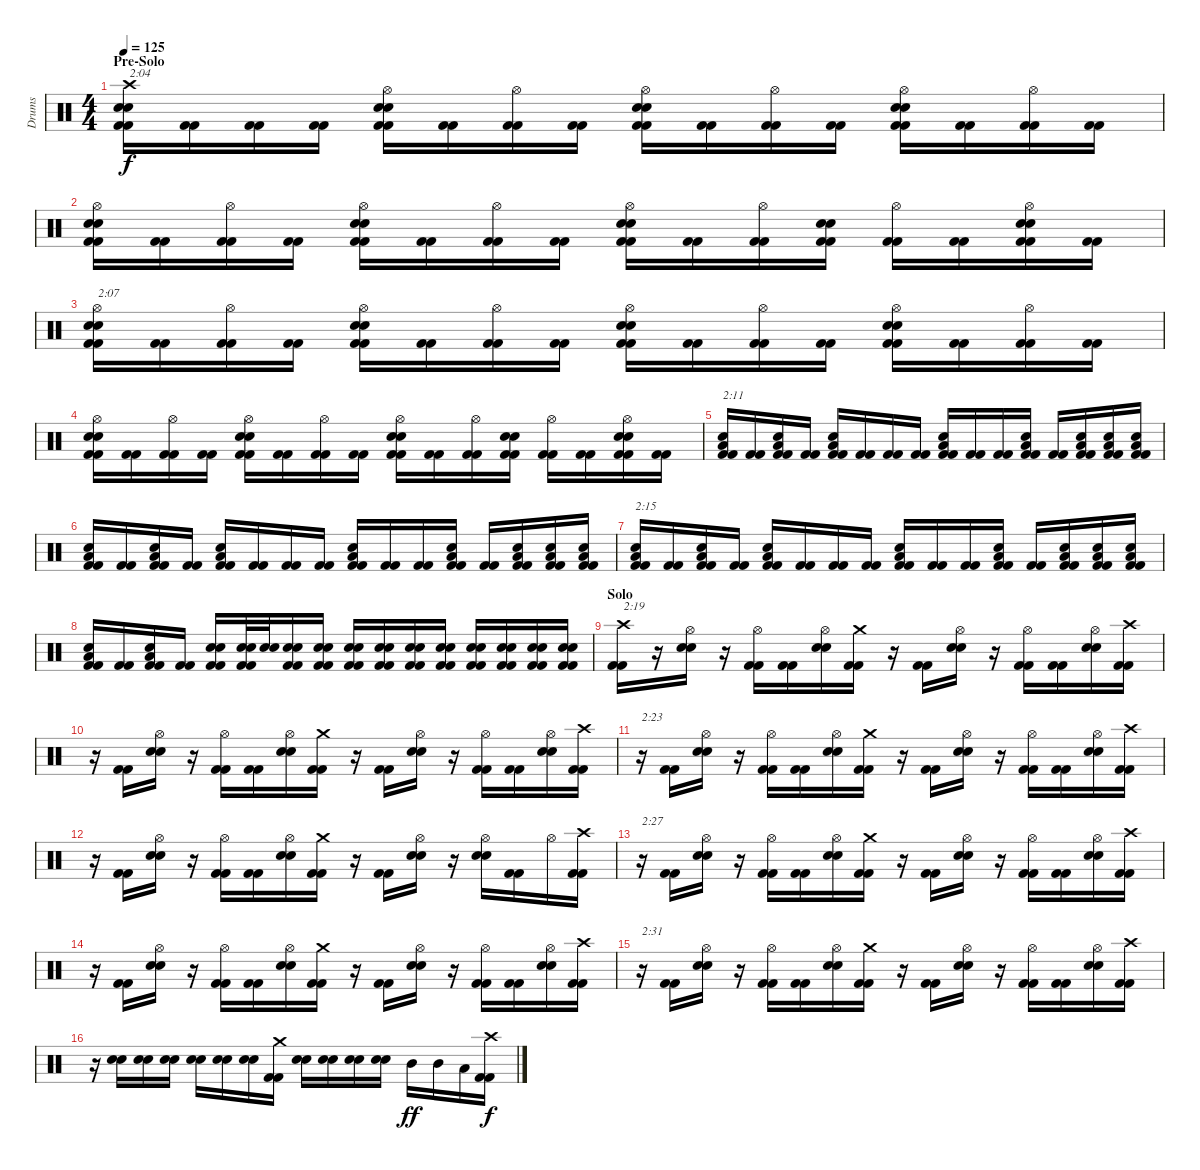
\track ("Drums" "Drums") {instrument percussion}
\staff {score}
\articulation defaults
\ts (4 4)
\section ("" "Pre-Solo")
\tempo 125
\clef neutral
\ks c
("Crash high (hit)" "Snare (hit) 2" "Snare (hit) 2" "Kick (hit) 2" "Kick (hit) 2").16{txt "2:04" dy f} ("Kick (hit) 2" "Kick (hit) 2").16 ("Kick (hit) 2" "Kick (hit) 2").16 ("Kick (hit) 2" "Kick (hit) 2").16 ("Hi-Hat (open)" "Snare (hit) 2" "Snare (hit) 2" "Kick (hit) 2" "Kick (hit) 2").16 ("Kick (hit) 2" "Kick (hit) 2").16 ("Hi-Hat (open)" "Kick (hit) 2" "Kick (hit) 2").16 ("Kick (hit) 2" "Kick (hit) 2").16 ("Hi-Hat (open)" "Snare (hit) 2" "Snare (hit) 2" "Kick (hit) 2" "Kick (hit) 2").16 ("Kick (hit) 2" "Kick (hit) 2").16 ("Hi-Hat (open)" "Kick (hit) 2" "Kick (hit) 2").16 ("Kick (hit) 2" "Kick (hit) 2").16 ("Hi-Hat (open)" "Snare (hit) 2" "Snare (hit) 2" "Kick (hit) 2" "Kick (hit) 2").16 ("Kick (hit) 2" "Kick (hit) 2").16 ("Hi-Hat (open)" "Kick (hit) 2" "Kick (hit) 2").16 ("Kick (hit) 2" "Kick (hit) 2").16 |
("Hi-Hat (open)" "Snare (hit) 2" "Snare (hit) 2" "Kick (hit) 2" "Kick (hit) 2").16 ("Kick (hit) 2" "Kick (hit) 2").16 ("Hi-Hat (open)" "Kick (hit) 2" "Kick (hit) 2").16 ("Kick (hit) 2" "Kick (hit) 2").16 ("Hi-Hat (open)" "Snare (hit) 2" "Snare (hit) 2" "Kick (hit) 2" "Kick (hit) 2").16 ("Kick (hit) 2" "Kick (hit) 2").16 ("Hi-Hat (open)" "Kick (hit) 2" "Kick (hit) 2").16 ("Kick (hit) 2" "Kick (hit) 2").16 ("Hi-Hat (open)" "Snare (hit) 2" "Snare (hit) 2" "Kick (hit) 2" "Kick (hit) 2").16 ("Kick (hit) 2" "Kick (hit) 2").16 ("Hi-Hat (open)" "Kick (hit) 2" "Kick (hit) 2").16 ("Snare (hit) 2" "Snare (hit) 2" "Kick (hit) 2" "Kick (hit) 2").16 ("Hi-Hat (open)" "Kick (hit) 2" "Kick (hit) 2").16 ("Kick (hit) 2" "Kick (hit) 2").16 ("Hi-Hat (open)" "Snare (hit) 2" "Snare (hit) 2" "Kick (hit) 2" "Kick (hit) 2").16 ("Kick (hit) 2" "Kick (hit) 2").16 |
("Hi-Hat (open)" "Snare (hit) 2" "Snare (hit) 2" "Kick (hit) 2" "Kick (hit) 2").16{txt "2:07"} ("Kick (hit) 2" "Kick (hit) 2").16 ("Hi-Hat (open)" "Kick (hit) 2" "Kick (hit) 2").16 ("Kick (hit) 2" "Kick (hit) 2").16 ("Hi-Hat (open)" "Snare (hit) 2" "Snare (hit) 2" "Kick (hit) 2" "Kick (hit) 2").16 ("Kick (hit) 2" "Kick (hit) 2").16 ("Hi-Hat (open)" "Kick (hit) 2" "Kick (hit) 2").16 ("Kick (hit) 2" "Kick (hit) 2").16 ("Hi-Hat (open)" "Snare (hit) 2" "Snare (hit) 2" "Kick (hit) 2" "Kick (hit) 2").16 ("Kick (hit) 2" "Kick (hit) 2").16 ("Hi-Hat (open)" "Kick (hit) 2" "Kick (hit) 2").16 ("Kick (hit) 2" "Kick (hit) 2").16 ("Hi-Hat (open)" "Snare (hit) 2" "Snare (hit) 2" "Kick (hit) 2" "Kick (hit) 2").16 ("Kick (hit) 2" "Kick (hit) 2").16 ("Hi-Hat (open)" "Kick (hit) 2" "Kick (hit) 2").16 ("Kick (hit) 2" "Kick (hit) 2").16 |
("Hi-Hat (open)" "Snare (hit) 2" "Snare (hit) 2" "Kick (hit) 2" "Kick (hit) 2").16 ("Kick (hit) 2" "Kick (hit) 2").16 ("Hi-Hat (open)" "Kick (hit) 2" "Kick (hit) 2").16 ("Kick (hit) 2" "Kick (hit) 2").16 ("Hi-Hat (open)" "Snare (hit) 2" "Snare (hit) 2" "Kick (hit) 2" "Kick (hit) 2").16 ("Kick (hit) 2" "Kick (hit) 2").16 ("Hi-Hat (open)" "Kick (hit) 2" "Kick (hit) 2").16 ("Kick (hit) 2" "Kick (hit) 2").16 ("Hi-Hat (open)" "Snare (hit) 2" "Snare (hit) 2" "Kick (hit) 2" "Kick (hit) 2").16 ("Kick (hit) 2" "Kick (hit) 2").16 ("Hi-Hat (open)" "Kick (hit) 2" "Kick (hit) 2").16 ("Snare (hit) 2" "Snare (hit) 2" "Kick (hit) 2" "Kick (hit) 2").16 ("Hi-Hat (open)" "Kick (hit) 2" "Kick (hit) 2").16 ("Kick (hit) 2" "Kick (hit) 2").16 ("Hi-Hat (open)" "Snare (hit) 2" "Snare (hit) 2" "Kick (hit) 2" "Kick (hit) 2").16 ("Kick (hit) 2" "Kick (hit) 2").16 |
("Low Floor Tom (hit)" "Snare (hit) 2" "Kick (hit) 2" "Kick (hit) 2").16{txt "2:11"} ("Kick (hit) 2" "Kick (hit) 2").16 ("Low Floor Tom (hit)" "Snare (hit) 2" "Kick (hit) 2" "Kick (hit) 2").16 ("Kick (hit) 2" "Kick (hit) 2").16 ("Low Floor Tom (hit)" "Snare (hit) 2" "Kick (hit) 2" "Kick (hit) 2").16 ("Kick (hit) 2" "Kick (hit) 2").16 ("Kick (hit) 2" "Kick (hit) 2").16 ("Kick (hit) 2" "Kick (hit) 2").16 ("Low Floor Tom (hit)" "Snare (hit) 2" "Kick (hit) 2" "Kick (hit) 2").16 ("Kick (hit) 2" "Kick (hit) 2").16 ("Kick (hit) 2" "Kick (hit) 2").16 ("Low Floor Tom (hit)" "Snare (hit) 2" "Kick (hit) 2" "Kick (hit) 2").16 ("Kick (hit) 2" "Kick (hit) 2").16 ("Low Floor Tom (hit)" "Snare (hit) 2" "Kick (hit) 2" "Kick (hit) 2").16 ("Low Floor Tom (hit)" "Snare (hit) 2" "Kick (hit) 2" "Kick (hit) 2").16 ("Low Floor Tom (hit)" "Snare (hit) 2" "Kick (hit) 2" "Kick (hit) 2").16 |
("Low Floor Tom (hit)" "Snare (hit) 2" "Kick (hit) 2" "Kick (hit) 2").16 ("Kick (hit) 2" "Kick (hit) 2").16 ("Low Floor Tom (hit)" "Snare (hit) 2" "Kick (hit) 2" "Kick (hit) 2").16 ("Kick (hit) 2" "Kick (hit) 2").16 ("Low Floor Tom (hit)" "Snare (hit) 2" "Kick (hit) 2" "Kick (hit) 2").16 ("Kick (hit) 2" "Kick (hit) 2").16 ("Kick (hit) 2" "Kick (hit) 2").16 ("Kick (hit) 2" "Kick (hit) 2").16 ("Low Floor Tom (hit)" "Snare (hit) 2" "Kick (hit) 2" "Kick (hit) 2").16 ("Kick (hit) 2" "Kick (hit) 2").16 ("Kick (hit) 2" "Kick (hit) 2").16 ("Low Floor Tom (hit)" "Snare (hit) 2" "Kick (hit) 2" "Kick (hit) 2").16 ("Kick (hit) 2" "Kick (hit) 2").16 ("Low Floor Tom (hit)" "Snare (hit) 2" "Kick (hit) 2" "Kick (hit) 2").16 ("Low Floor Tom (hit)" "Snare (hit) 2" "Kick (hit) 2" "Kick (hit) 2").16 ("Low Floor Tom (hit)" "Snare (hit) 2" "Kick (hit) 2" "Kick (hit) 2").16 |
("Low Floor Tom (hit)" "Snare (hit) 2" "Kick (hit) 2" "Kick (hit) 2").16{txt "2:15"} ("Kick (hit) 2" "Kick (hit) 2").16 ("Low Floor Tom (hit)" "Snare (hit) 2" "Kick (hit) 2" "Kick (hit) 2").16 ("Kick (hit) 2" "Kick (hit) 2").16 ("Low Floor Tom (hit)" "Snare (hit) 2" "Kick (hit) 2" "Kick (hit) 2").16 ("Kick (hit) 2" "Kick (hit) 2").16 ("Kick (hit) 2" "Kick (hit) 2").16 ("Kick (hit) 2" "Kick (hit) 2").16 ("Low Floor Tom (hit)" "Snare (hit) 2" "Kick (hit) 2" "Kick (hit) 2").16 ("Kick (hit) 2" "Kick (hit) 2").16 ("Kick (hit) 2" "Kick (hit) 2").16 ("Low Floor Tom (hit)" "Snare (hit) 2" "Kick (hit) 2" "Kick (hit) 2").16 ("Kick (hit) 2" "Kick (hit) 2").16 ("Low Floor Tom (hit)" "Snare (hit) 2" "Kick (hit) 2" "Kick (hit) 2").16 ("Low Floor Tom (hit)" "Snare (hit) 2" "Kick (hit) 2" "Kick (hit) 2").16 ("Low Floor Tom (hit)" "Snare (hit) 2" "Kick (hit) 2" "Kick (hit) 2").16 |
("Low Floor Tom (hit)" "Snare (hit) 2" "Kick (hit) 2" "Kick (hit) 2").16 ("Kick (hit) 2" "Kick (hit) 2").16 ("Low Floor Tom (hit)" "Snare (hit) 2" "Kick (hit) 2" "Kick (hit) 2").16 ("Kick (hit) 2" "Kick (hit) 2").16 ("Snare (hit) 2" "Snare (hit) 2" "Kick (hit) 2" "Kick (hit) 2").16 ("Snare (hit) 2" "Snare (hit) 2" "Kick (hit) 2" "Kick (hit) 2").32 ("Snare (hit) 2" "Snare (hit) 2").32 ("Snare (hit) 2" "Snare (hit) 2" "Kick (hit) 2" "Kick (hit) 2").16 ("Snare (hit) 2" "Snare (hit) 2" "Kick (hit) 2" "Kick (hit) 2").16 ("Snare (hit) 2" "Snare (hit) 2" "Kick (hit) 2" "Kick (hit) 2").16 ("Snare (hit) 2" "Snare (hit) 2" "Kick (hit) 2" "Kick (hit) 2").16 ("Snare (hit) 2" "Snare (hit) 2" "Kick (hit) 2" "Kick (hit) 2").16 ("Snare (hit) 2" "Snare (hit) 2" "Kick (hit) 2" "Kick (hit) 2").16 ("Snare (hit) 2" "Snare (hit) 2" "Kick (hit) 2" "Kick (hit) 2").16 ("Snare (hit) 2" "Snare (hit) 2" "Kick (hit) 2" "Kick (hit) 2").16 ("Snare (hit) 2" "Snare (hit) 2" "Kick (hit) 2" "Kick (hit) 2").16 ("Snare (hit) 2" "Snare (hit) 2" "Kick (hit) 2" "Kick (hit) 2").16 |
\section ("" "Solo")
("Crash high (hit)" "Kick (hit) 2" "Kick (hit) 2").16{txt "2:19"} r.16 ("Hi-Hat (open)" "Snare (hit) 2" "Snare (hit) 2").16 r.16 ("Hi-Hat (open)" "Kick (hit) 2" "Kick (hit) 2").16 ("Kick (hit) 2" "Kick (hit) 2").16 ("Hi-Hat (open)" "Snare (hit) 2" "Snare (hit) 2").16 ("Crash medium (hit)" "Kick (hit) 2" "Kick (hit) 2").16 r.16 ("Kick (hit) 2" "Kick (hit) 2").16 ("Hi-Hat (open)" "Snare (hit) 2" "Snare (hit) 2").16 r.16 ("Hi-Hat (open)" "Kick (hit) 2" "Kick (hit) 2").16 ("Kick (hit) 2" "Kick (hit) 2").16 ("Hi-Hat (open)" "Snare (hit) 2" "Snare (hit) 2").16 ("Crash high (hit)" "Kick (hit) 2" "Kick (hit) 2").16 |
r.16 ("Kick (hit) 2" "Kick (hit) 2").16 ("Hi-Hat (open)" "Snare (hit) 2" "Snare (hit) 2").16 r.16 ("Hi-Hat (open)" "Kick (hit) 2" "Kick (hit) 2").16 ("Kick (hit) 2" "Kick (hit) 2").16 ("Hi-Hat (open)" "Snare (hit) 2" "Snare (hit) 2").16 ("Crash medium (hit)" "Kick (hit) 2" "Kick (hit) 2").16 r.16 ("Kick (hit) 2" "Kick (hit) 2").16 ("Hi-Hat (open)" "Snare (hit) 2" "Snare (hit) 2").16 r.16 ("Hi-Hat (open)" "Kick (hit) 2" "Kick (hit) 2").16 ("Kick (hit) 2" "Kick (hit) 2").16 ("Hi-Hat (open)" "Snare (hit) 2" "Snare (hit) 2").16 ("Crash high (hit)" "Kick (hit) 2" "Kick (hit) 2").16 |
r.16{txt "2:23"} ("Kick (hit) 2" "Kick (hit) 2").16 ("Hi-Hat (open)" "Snare (hit) 2" "Snare (hit) 2").16 r.16 ("Hi-Hat (open)" "Kick (hit) 2" "Kick (hit) 2").16 ("Kick (hit) 2" "Kick (hit) 2").16 ("Hi-Hat (open)" "Snare (hit) 2" "Snare (hit) 2").16 ("Crash medium (hit)" "Kick (hit) 2" "Kick (hit) 2").16 r.16 ("Kick (hit) 2" "Kick (hit) 2").16 ("Hi-Hat (open)" "Snare (hit) 2" "Snare (hit) 2").16 r.16 ("Hi-Hat (open)" "Kick (hit) 2" "Kick (hit) 2").16 ("Kick (hit) 2" "Kick (hit) 2").16 ("Hi-Hat (open)" "Snare (hit) 2" "Snare (hit) 2").16 ("Crash high (hit)" "Kick (hit) 2" "Kick (hit) 2").16 |
r.16 ("Kick (hit) 2" "Kick (hit) 2").16 ("Hi-Hat (open)" "Snare (hit) 2" "Snare (hit) 2").16 r.16 ("Hi-Hat (open)" "Kick (hit) 2" "Kick (hit) 2").16 ("Kick (hit) 2" "Kick (hit) 2").16 ("Hi-Hat (open)" "Snare (hit) 2" "Snare (hit) 2").16 ("Crash medium (hit)" "Kick (hit) 2" "Kick (hit) 2").16 r.16 ("Kick (hit) 2" "Kick (hit) 2").16 ("Hi-Hat (open)" "Snare (hit) 2" "Snare (hit) 2").16 r.16 ("Hi-Hat (open)" "Snare (hit) 2" "Snare (hit) 2").16 ("Kick (hit) 2" "Kick (hit) 2").16 "Hi-Hat (open)".16 ("Crash high (hit)" "Kick (hit) 2" "Kick (hit) 2").16 |
r.16{txt "2:27"} ("Kick (hit) 2" "Kick (hit) 2").16 ("Hi-Hat (open)" "Snare (hit) 2" "Snare (hit) 2").16 r.16 ("Hi-Hat (open)" "Kick (hit) 2" "Kick (hit) 2").16 ("Kick (hit) 2" "Kick (hit) 2").16 ("Hi-Hat (open)" "Snare (hit) 2" "Snare (hit) 2").16 ("Crash medium (hit)" "Kick (hit) 2" "Kick (hit) 2").16 r.16 ("Kick (hit) 2" "Kick (hit) 2").16 ("Hi-Hat (open)" "Snare (hit) 2" "Snare (hit) 2").16 r.16 ("Hi-Hat (open)" "Kick (hit) 2" "Kick (hit) 2").16 ("Kick (hit) 2" "Kick (hit) 2").16 ("Hi-Hat (open)" "Snare (hit) 2" "Snare (hit) 2").16 ("Crash high (hit)" "Kick (hit) 2" "Kick (hit) 2").16 |
r.16 ("Kick (hit) 2" "Kick (hit) 2").16 ("Hi-Hat (open)" "Snare (hit) 2" "Snare (hit) 2").16 r.16 ("Hi-Hat (open)" "Kick (hit) 2" "Kick (hit) 2").16 ("Kick (hit) 2" "Kick (hit) 2").16 ("Hi-Hat (open)" "Snare (hit) 2" "Snare (hit) 2").16 ("Crash medium (hit)" "Kick (hit) 2" "Kick (hit) 2").16 r.16 ("Kick (hit) 2" "Kick (hit) 2").16 ("Hi-Hat (open)" "Snare (hit) 2" "Snare (hit) 2").16 r.16 ("Hi-Hat (open)" "Kick (hit) 2" "Kick (hit) 2").16 ("Kick (hit) 2" "Kick (hit) 2").16 ("Hi-Hat (open)" "Snare (hit) 2" "Snare (hit) 2").16 ("Crash high (hit)" "Kick (hit) 2" "Kick (hit) 2").16 |
r.16{txt "2:31"} ("Kick (hit) 2" "Kick (hit) 2").16 ("Hi-Hat (open)" "Snare (hit) 2" "Snare (hit) 2").16 r.16 ("Hi-Hat (open)" "Kick (hit) 2" "Kick (hit) 2").16 ("Kick (hit) 2" "Kick (hit) 2").16 ("Hi-Hat (open)" "Snare (hit) 2" "Snare (hit) 2").16 ("Crash medium (hit)" "Kick (hit) 2" "Kick (hit) 2").16 r.16 ("Kick (hit) 2" "Kick (hit) 2").16 ("Hi-Hat (open)" "Snare (hit) 2" "Snare (hit) 2").16 r.16 ("Hi-Hat (open)" "Kick (hit) 2" "Kick (hit) 2").16 ("Kick (hit) 2" "Kick (hit) 2").16 ("Hi-Hat (open)" "Snare (hit) 2" "Snare (hit) 2").16 ("Crash high (hit)" "Kick (hit) 2" "Kick (hit) 2").16 |
r.16 ("Snare (hit) 2" "Snare (hit) 2").16 ("Snare (hit) 2" "Snare (hit) 2").16 ("Snare (hit) 2" "Snare (hit) 2").16 ("Snare (hit) 2" "Snare (hit) 2").16 ("Snare (hit) 2" "Snare (hit) 2").16 ("Snare (hit) 2" "Snare (hit) 2").16 ("Crash medium (hit)" "Kick (hit) 2" "Kick (hit) 2").16 ("Snare (hit) 2" "Snare (hit) 2").16 ("Snare (hit) 2" "Snare (hit) 2").16 ("Snare (hit) 2" "Snare (hit) 2").16 ("Snare (hit) 2" "Snare (hit) 2").16 "Mid Tom (hit)".16{dy ff} "Mid Tom (hit)".16 "Low Tom (hit)".16 ("Crash high (hit)" "Kick (hit) 2" "Kick (hit) 2").16{dy f}
